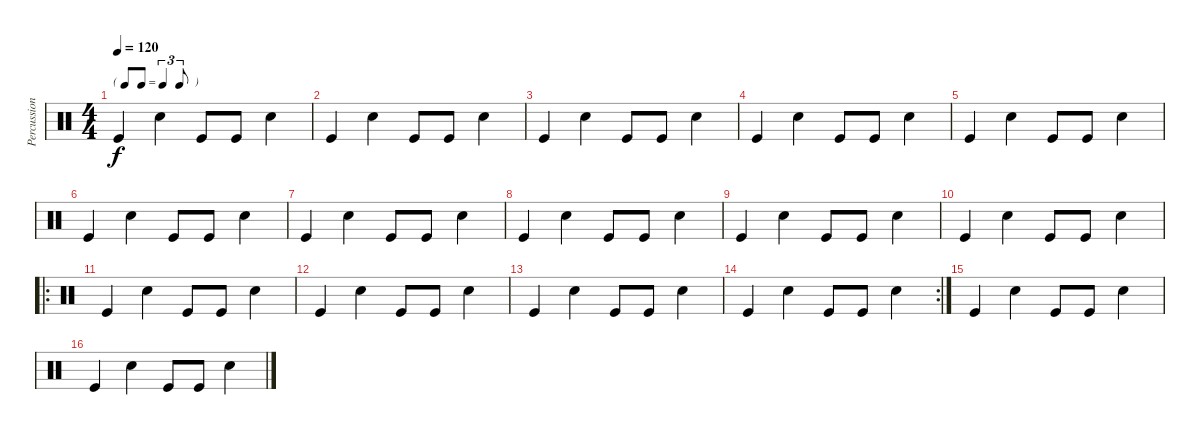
\track ("Percussion" "Percussion") {instrument percussion}
\staff {score}
\articulation defaults
\ts (4 4)
\tf triplet8th
\tempo 120
\clef neutral
\ks c "Kick (hit)".4{dy f} "Snare (hit) 2".4 "Kick (hit)".8 "Kick (hit)".8 "Snare (hit) 2".4
|
"Kick (hit)".4 "Snare (hit) 2".4 "Kick (hit)".8 "Kick (hit)".8 "Snare (hit) 2".4 |
"Kick (hit)".4 "Snare (hit) 2".4 "Kick (hit)".8 "Kick (hit)".8 "Snare (hit) 2".4 |
"Kick (hit)".4 "Snare (hit) 2".4 "Kick (hit)".8 "Kick (hit)".8 "Snare (hit) 2".4 |
"Kick (hit)".4 "Snare (hit) 2".4 "Kick (hit)".8 "Kick (hit)".8 "Snare (hit) 2".4 |
"Kick (hit)".4 "Snare (hit) 2".4 "Kick (hit)".8 "Kick (hit)".8 "Snare (hit) 2".4 |
"Kick (hit)".4 "Snare (hit) 2".4 "Kick (hit)".8 "Kick (hit)".8 "Snare (hit) 2".4 |
"Kick (hit)".4 "Snare (hit) 2".4 "Kick (hit)".8 "Kick (hit)".8 "Snare (hit) 2".4 |
"Kick (hit)".4 "Snare (hit) 2".4 "Kick (hit)".8 "Kick (hit)".8 "Snare (hit) 2".4 |
"Kick (hit)".4 "Snare (hit) 2".4 "Kick (hit)".8 "Kick (hit)".8 "Snare (hit) 2".4 |
\ro "Kick (hit)".4 "Snare (hit) 2".4 "Kick (hit)".8 "Kick (hit)".8 "Snare (hit) 2".4
|
"Kick (hit)".4 "Snare (hit) 2".4 "Kick (hit)".8 "Kick (hit)".8 "Snare (hit) 2".4 |
"Kick (hit)".4 "Snare (hit) 2".4 "Kick (hit)".8 "Kick (hit)".8 "Snare (hit) 2".4 |
\rc 2 "Kick (hit)".4 "Snare (hit) 2".4 "Kick (hit)".8 "Kick (hit)".8 "Snare (hit) 2".4
|
"Kick (hit)".4 "Snare (hit) 2".4 "Kick (hit)".8 "Kick (hit)".8 "Snare (hit) 2".4 |
"Kick (hit)".4 "Snare (hit) 2".4 "Kick (hit)".8 "Kick (hit)".8 "Snare (hit) 2".4
